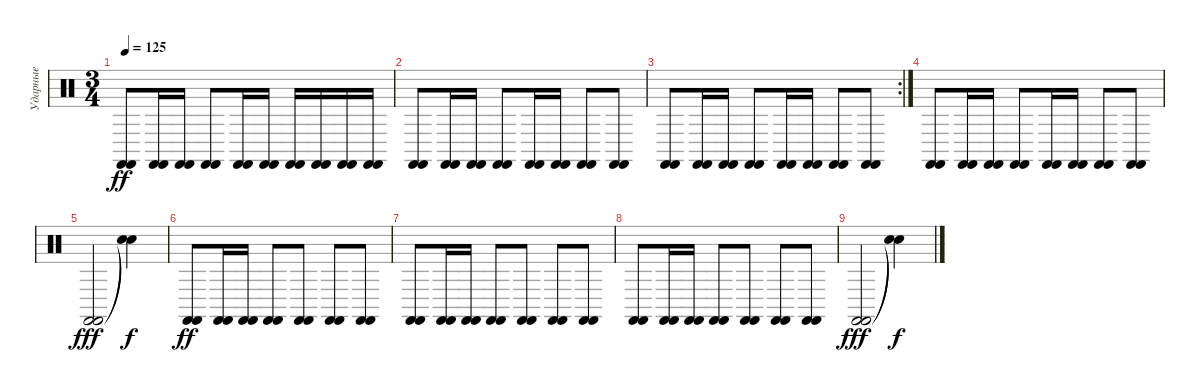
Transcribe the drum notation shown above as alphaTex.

\track ("Ударные" "Ударные") {instrument percussion}
\staff {score}
\articulation defaults
\ts (3 4)
\tempo 125
\clef neutral
\ks c
("Castanets (hit)" "Castanets (hit)").8{dy ff} ("Castanets (hit)" "Castanets (hit)").16 ("Castanets (hit)" "Castanets (hit)").16 ("Castanets (hit)" "Castanets (hit)").8 ("Castanets (hit)" "Castanets (hit)").16 ("Castanets (hit)" "Castanets (hit)").16 ("Castanets (hit)" "Castanets (hit)").16 ("Castanets (hit)" "Castanets (hit)").16 ("Castanets (hit)" "Castanets (hit)").16 ("Castanets (hit)" "Castanets (hit)").16 |
("Castanets (hit)" "Castanets (hit)").8 ("Castanets (hit)" "Castanets (hit)").16 ("Castanets (hit)" "Castanets (hit)").16 ("Castanets (hit)" "Castanets (hit)").8 ("Castanets (hit)" "Castanets (hit)").16 ("Castanets (hit)" "Castanets (hit)").16 ("Castanets (hit)" "Castanets (hit)").8 ("Castanets (hit)" "Castanets (hit)").8 |
\rc 2
("Castanets (hit)" "Castanets (hit)").8 ("Castanets (hit)" "Castanets (hit)").16 ("Castanets (hit)" "Castanets (hit)").16 ("Castanets (hit)" "Castanets (hit)").8 ("Castanets (hit)" "Castanets (hit)").16 ("Castanets (hit)" "Castanets (hit)").16 ("Castanets (hit)" "Castanets (hit)").8 ("Castanets (hit)" "Castanets (hit)").8 |
("Castanets (hit)" "Castanets (hit)").8 ("Castanets (hit)" "Castanets (hit)").16 ("Castanets (hit)" "Castanets (hit)").16 ("Castanets (hit)" "Castanets (hit)").8 ("Castanets (hit)" "Castanets (hit)").16 ("Castanets (hit)" "Castanets (hit)").16 ("Castanets (hit)" "Castanets (hit)").8 ("Castanets (hit)" "Castanets (hit)").8 |
("Castanets (hit)" "Castanets (hit)").2{dy fff} ("Snare (hit)"{t} "Snare (hit)"{t}).4{dy f} |
("Castanets (hit)" "Castanets (hit)").8{dy ff} ("Castanets (hit)" "Castanets (hit)").16 ("Castanets (hit)" "Castanets (hit)").16 ("Castanets (hit)" "Castanets (hit)").8 ("Castanets (hit)" "Castanets (hit)").8 ("Castanets (hit)" "Castanets (hit)").8 ("Castanets (hit)" "Castanets (hit)").8 |
("Castanets (hit)" "Castanets (hit)").8 ("Castanets (hit)" "Castanets (hit)").16 ("Castanets (hit)" "Castanets (hit)").16 ("Castanets (hit)" "Castanets (hit)").8 ("Castanets (hit)" "Castanets (hit)").8 ("Castanets (hit)" "Castanets (hit)").8 ("Castanets (hit)" "Castanets (hit)").8 |
("Castanets (hit)" "Castanets (hit)").8 ("Castanets (hit)" "Castanets (hit)").16 ("Castanets (hit)" "Castanets (hit)").16 ("Castanets (hit)" "Castanets (hit)").8 ("Castanets (hit)" "Castanets (hit)").8 ("Castanets (hit)" "Castanets (hit)").8 ("Castanets (hit)" "Castanets (hit)").8 |
("Castanets (hit)" "Castanets (hit)").2{dy fff} ("Snare (hit)"{t} "Snare (hit)"{t}).4{dy f}
